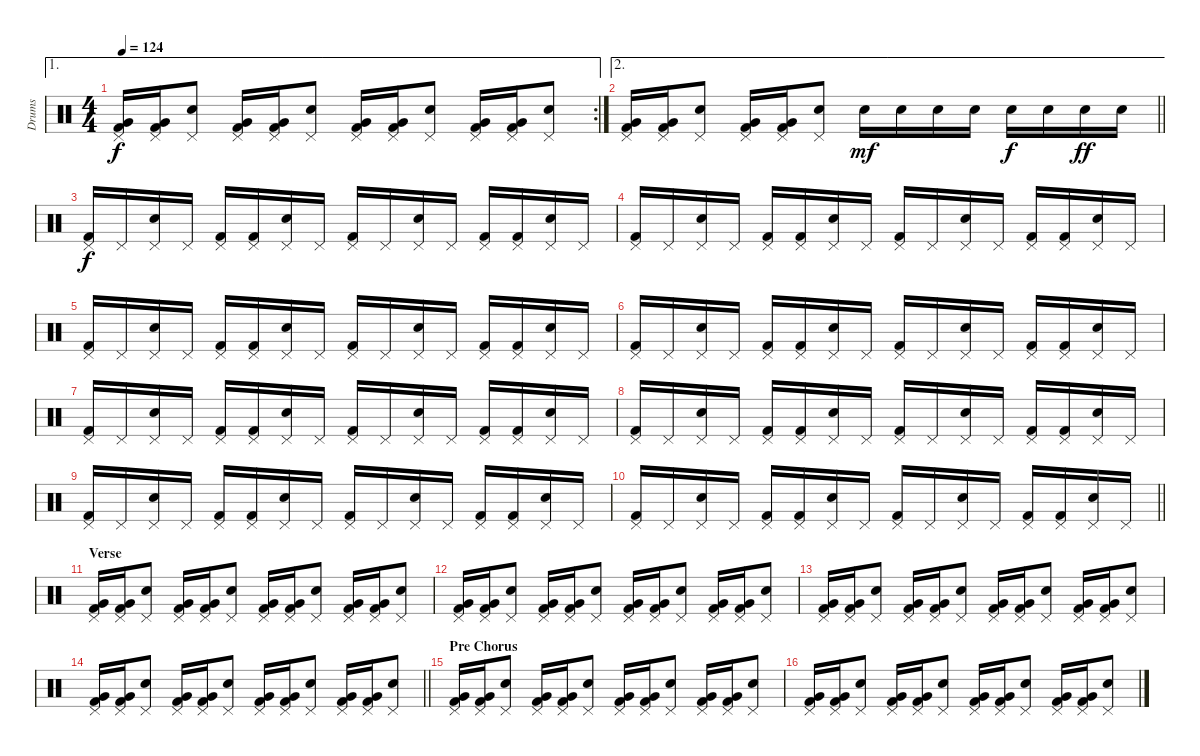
\track ("Drums" "Drums") {instrument percussion}
\staff {score}
\articulation defaults
\ae 1
\rc 2
\ts (4 4)
\tempo 124
\clef neutral
\ks c
("Pedal Hi-Hat (hit)" "Very Low Tom (hit)" "Kick (hit) 2").16{dy f} ("Pedal Hi-Hat (hit)" "Very Low Tom (hit)" "Kick (hit) 2").16 ("Pedal Hi-Hat (hit)" "Electric Snare (hit)").8 ("Pedal Hi-Hat (hit)" "Very Low Tom (hit)" "Kick (hit) 2").16 ("Pedal Hi-Hat (hit)" "Very Low Tom (hit)" "Kick (hit) 2").16 ("Pedal Hi-Hat (hit)" "Electric Snare (hit)").8 ("Pedal Hi-Hat (hit)" "Very Low Tom (hit)" "Kick (hit) 2").16 ("Pedal Hi-Hat (hit)" "Very Low Tom (hit)" "Kick (hit) 2").16 ("Pedal Hi-Hat (hit)" "Electric Snare (hit)").8 ("Pedal Hi-Hat (hit)" "Very Low Tom (hit)" "Kick (hit) 2").16 ("Pedal Hi-Hat (hit)" "Very Low Tom (hit)" "Kick (hit) 2").16 ("Pedal Hi-Hat (hit)" "Electric Snare (hit)").8 |
\ae 2
\barLineRight lightlight
("Pedal Hi-Hat (hit)" "Very Low Tom (hit)" "Kick (hit) 2").16 ("Pedal Hi-Hat (hit)" "Very Low Tom (hit)" "Kick (hit) 2").16 ("Pedal Hi-Hat (hit)" "Electric Snare (hit)").8 ("Pedal Hi-Hat (hit)" "Very Low Tom (hit)" "Kick (hit) 2").16 ("Pedal Hi-Hat (hit)" "Very Low Tom (hit)" "Kick (hit) 2").16 ("Pedal Hi-Hat (hit)" "Electric Snare (hit)").8 "Electric Snare (hit)".16{dy mf} "Electric Snare (hit)".16 "Electric Snare (hit)".16 "Electric Snare (hit)".16 "Electric Snare (hit)".16{dy f} "Electric Snare (hit)".16 "Electric Snare (hit)".16{dy ff} "Electric Snare (hit)".16 |
("Pedal Hi-Hat (hit)" "Kick (hit) 2").16{dy f} "Pedal Hi-Hat (hit)".16 ("Pedal Hi-Hat (hit)" "Electric Snare (hit)").16 "Pedal Hi-Hat (hit)".16 ("Pedal Hi-Hat (hit)" "Kick (hit) 2").16 ("Pedal Hi-Hat (hit)" "Kick (hit) 2").16 ("Pedal Hi-Hat (hit)" "Electric Snare (hit)").16 "Pedal Hi-Hat (hit)".16 ("Pedal Hi-Hat (hit)" "Kick (hit) 2").16 "Pedal Hi-Hat (hit)".16 ("Pedal Hi-Hat (hit)" "Electric Snare (hit)").16 "Pedal Hi-Hat (hit)".16 ("Pedal Hi-Hat (hit)" "Kick (hit) 2").16 ("Pedal Hi-Hat (hit)" "Kick (hit) 2").16 ("Pedal Hi-Hat (hit)" "Electric Snare (hit)").16 "Pedal Hi-Hat (hit)".16 |
("Pedal Hi-Hat (hit)" "Kick (hit) 2").16 "Pedal Hi-Hat (hit)".16 ("Pedal Hi-Hat (hit)" "Electric Snare (hit)").16 "Pedal Hi-Hat (hit)".16 ("Pedal Hi-Hat (hit)" "Kick (hit) 2").16 ("Pedal Hi-Hat (hit)" "Kick (hit) 2").16 ("Pedal Hi-Hat (hit)" "Electric Snare (hit)").16 "Pedal Hi-Hat (hit)".16 ("Pedal Hi-Hat (hit)" "Kick (hit) 2").16 "Pedal Hi-Hat (hit)".16 ("Pedal Hi-Hat (hit)" "Electric Snare (hit)").16 "Pedal Hi-Hat (hit)".16 ("Pedal Hi-Hat (hit)" "Kick (hit) 2").16 ("Pedal Hi-Hat (hit)" "Kick (hit) 2").16 ("Pedal Hi-Hat (hit)" "Electric Snare (hit)").16 "Pedal Hi-Hat (hit)".16 |
("Pedal Hi-Hat (hit)" "Kick (hit) 2").16 "Pedal Hi-Hat (hit)".16 ("Pedal Hi-Hat (hit)" "Electric Snare (hit)").16 "Pedal Hi-Hat (hit)".16 ("Pedal Hi-Hat (hit)" "Kick (hit) 2").16 ("Pedal Hi-Hat (hit)" "Kick (hit) 2").16 ("Pedal Hi-Hat (hit)" "Electric Snare (hit)").16 "Pedal Hi-Hat (hit)".16 ("Pedal Hi-Hat (hit)" "Kick (hit) 2").16 "Pedal Hi-Hat (hit)".16 ("Pedal Hi-Hat (hit)" "Electric Snare (hit)").16 "Pedal Hi-Hat (hit)".16 ("Pedal Hi-Hat (hit)" "Kick (hit) 2").16 ("Pedal Hi-Hat (hit)" "Kick (hit) 2").16 ("Pedal Hi-Hat (hit)" "Electric Snare (hit)").16 "Pedal Hi-Hat (hit)".16 |
("Pedal Hi-Hat (hit)" "Kick (hit) 2").16 "Pedal Hi-Hat (hit)".16 ("Pedal Hi-Hat (hit)" "Electric Snare (hit)").16 "Pedal Hi-Hat (hit)".16 ("Pedal Hi-Hat (hit)" "Kick (hit) 2").16 ("Pedal Hi-Hat (hit)" "Kick (hit) 2").16 ("Pedal Hi-Hat (hit)" "Electric Snare (hit)").16 "Pedal Hi-Hat (hit)".16 ("Pedal Hi-Hat (hit)" "Kick (hit) 2").16 "Pedal Hi-Hat (hit)".16 ("Pedal Hi-Hat (hit)" "Electric Snare (hit)").16 "Pedal Hi-Hat (hit)".16 ("Pedal Hi-Hat (hit)" "Kick (hit) 2").16 ("Pedal Hi-Hat (hit)" "Kick (hit) 2").16 ("Pedal Hi-Hat (hit)" "Electric Snare (hit)").16 "Pedal Hi-Hat (hit)".16 |
("Pedal Hi-Hat (hit)" "Kick (hit) 2").16 "Pedal Hi-Hat (hit)".16 ("Pedal Hi-Hat (hit)" "Electric Snare (hit)").16 "Pedal Hi-Hat (hit)".16 ("Pedal Hi-Hat (hit)" "Kick (hit) 2").16 ("Pedal Hi-Hat (hit)" "Kick (hit) 2").16 ("Pedal Hi-Hat (hit)" "Electric Snare (hit)").16 "Pedal Hi-Hat (hit)".16 ("Pedal Hi-Hat (hit)" "Kick (hit) 2").16 "Pedal Hi-Hat (hit)".16 ("Pedal Hi-Hat (hit)" "Electric Snare (hit)").16 "Pedal Hi-Hat (hit)".16 ("Pedal Hi-Hat (hit)" "Kick (hit) 2").16 ("Pedal Hi-Hat (hit)" "Kick (hit) 2").16 ("Pedal Hi-Hat (hit)" "Electric Snare (hit)").16 "Pedal Hi-Hat (hit)".16 |
("Pedal Hi-Hat (hit)" "Kick (hit) 2").16 "Pedal Hi-Hat (hit)".16 ("Pedal Hi-Hat (hit)" "Electric Snare (hit)").16 "Pedal Hi-Hat (hit)".16 ("Pedal Hi-Hat (hit)" "Kick (hit) 2").16 ("Pedal Hi-Hat (hit)" "Kick (hit) 2").16 ("Pedal Hi-Hat (hit)" "Electric Snare (hit)").16 "Pedal Hi-Hat (hit)".16 ("Pedal Hi-Hat (hit)" "Kick (hit) 2").16 "Pedal Hi-Hat (hit)".16 ("Pedal Hi-Hat (hit)" "Electric Snare (hit)").16 "Pedal Hi-Hat (hit)".16 ("Pedal Hi-Hat (hit)" "Kick (hit) 2").16 ("Pedal Hi-Hat (hit)" "Kick (hit) 2").16 ("Pedal Hi-Hat (hit)" "Electric Snare (hit)").16 "Pedal Hi-Hat (hit)".16 |
("Pedal Hi-Hat (hit)" "Kick (hit) 2").16 "Pedal Hi-Hat (hit)".16 ("Pedal Hi-Hat (hit)" "Electric Snare (hit)").16 "Pedal Hi-Hat (hit)".16 ("Pedal Hi-Hat (hit)" "Kick (hit) 2").16 ("Pedal Hi-Hat (hit)" "Kick (hit) 2").16 ("Pedal Hi-Hat (hit)" "Electric Snare (hit)").16 "Pedal Hi-Hat (hit)".16 ("Pedal Hi-Hat (hit)" "Kick (hit) 2").16 "Pedal Hi-Hat (hit)".16 ("Pedal Hi-Hat (hit)" "Electric Snare (hit)").16 "Pedal Hi-Hat (hit)".16 ("Pedal Hi-Hat (hit)" "Kick (hit) 2").16 ("Pedal Hi-Hat (hit)" "Kick (hit) 2").16 ("Pedal Hi-Hat (hit)" "Electric Snare (hit)").16 "Pedal Hi-Hat (hit)".16 |
\barLineRight lightlight
("Pedal Hi-Hat (hit)" "Kick (hit) 2").16 "Pedal Hi-Hat (hit)".16 ("Pedal Hi-Hat (hit)" "Electric Snare (hit)").16 "Pedal Hi-Hat (hit)".16 ("Pedal Hi-Hat (hit)" "Kick (hit) 2").16 ("Pedal Hi-Hat (hit)" "Kick (hit) 2").16 ("Pedal Hi-Hat (hit)" "Electric Snare (hit)").16 "Pedal Hi-Hat (hit)".16 ("Pedal Hi-Hat (hit)" "Kick (hit) 2").16 "Pedal Hi-Hat (hit)".16 ("Pedal Hi-Hat (hit)" "Electric Snare (hit)").16 "Pedal Hi-Hat (hit)".16 ("Pedal Hi-Hat (hit)" "Kick (hit) 2").16 ("Pedal Hi-Hat (hit)" "Kick (hit) 2").16 ("Pedal Hi-Hat (hit)" "Electric Snare (hit)").16 "Pedal Hi-Hat (hit)".16 |
\section ("" "Verse")
("Pedal Hi-Hat (hit)" "Very Low Tom (hit)" "Kick (hit) 2").16 ("Pedal Hi-Hat (hit)" "Very Low Tom (hit)" "Kick (hit) 2").16 ("Pedal Hi-Hat (hit)" "Electric Snare (hit)").8 ("Pedal Hi-Hat (hit)" "Very Low Tom (hit)" "Kick (hit) 2").16 ("Pedal Hi-Hat (hit)" "Very Low Tom (hit)" "Kick (hit) 2").16 ("Pedal Hi-Hat (hit)" "Electric Snare (hit)").8 ("Pedal Hi-Hat (hit)" "Very Low Tom (hit)" "Kick (hit) 2").16 ("Pedal Hi-Hat (hit)" "Very Low Tom (hit)" "Kick (hit) 2").16 ("Pedal Hi-Hat (hit)" "Electric Snare (hit)").8 ("Pedal Hi-Hat (hit)" "Very Low Tom (hit)" "Kick (hit) 2").16 ("Pedal Hi-Hat (hit)" "Very Low Tom (hit)" "Kick (hit) 2").16 ("Pedal Hi-Hat (hit)" "Electric Snare (hit)").8 |
("Pedal Hi-Hat (hit)" "Very Low Tom (hit)" "Kick (hit) 2").16 ("Pedal Hi-Hat (hit)" "Very Low Tom (hit)" "Kick (hit) 2").16 ("Pedal Hi-Hat (hit)" "Electric Snare (hit)").8 ("Pedal Hi-Hat (hit)" "Very Low Tom (hit)" "Kick (hit) 2").16 ("Pedal Hi-Hat (hit)" "Very Low Tom (hit)" "Kick (hit) 2").16 ("Pedal Hi-Hat (hit)" "Electric Snare (hit)").8 ("Pedal Hi-Hat (hit)" "Very Low Tom (hit)" "Kick (hit) 2").16 ("Pedal Hi-Hat (hit)" "Very Low Tom (hit)" "Kick (hit) 2").16 ("Pedal Hi-Hat (hit)" "Electric Snare (hit)").8 ("Pedal Hi-Hat (hit)" "Very Low Tom (hit)" "Kick (hit) 2").16 ("Pedal Hi-Hat (hit)" "Very Low Tom (hit)" "Kick (hit) 2").16 ("Pedal Hi-Hat (hit)" "Electric Snare (hit)").8 |
("Pedal Hi-Hat (hit)" "Very Low Tom (hit)" "Kick (hit) 2").16 ("Pedal Hi-Hat (hit)" "Very Low Tom (hit)" "Kick (hit) 2").16 ("Pedal Hi-Hat (hit)" "Electric Snare (hit)").8 ("Pedal Hi-Hat (hit)" "Very Low Tom (hit)" "Kick (hit) 2").16 ("Pedal Hi-Hat (hit)" "Very Low Tom (hit)" "Kick (hit) 2").16 ("Pedal Hi-Hat (hit)" "Electric Snare (hit)").8 ("Pedal Hi-Hat (hit)" "Very Low Tom (hit)" "Kick (hit) 2").16 ("Pedal Hi-Hat (hit)" "Very Low Tom (hit)" "Kick (hit) 2").16 ("Pedal Hi-Hat (hit)" "Electric Snare (hit)").8 ("Pedal Hi-Hat (hit)" "Very Low Tom (hit)" "Kick (hit) 2").16 ("Pedal Hi-Hat (hit)" "Very Low Tom (hit)" "Kick (hit) 2").16 ("Pedal Hi-Hat (hit)" "Electric Snare (hit)").8 |
\barLineRight lightlight
("Pedal Hi-Hat (hit)" "Very Low Tom (hit)" "Kick (hit) 2").16 ("Pedal Hi-Hat (hit)" "Very Low Tom (hit)" "Kick (hit) 2").16 ("Pedal Hi-Hat (hit)" "Electric Snare (hit)").8 ("Pedal Hi-Hat (hit)" "Very Low Tom (hit)" "Kick (hit) 2").16 ("Pedal Hi-Hat (hit)" "Very Low Tom (hit)" "Kick (hit) 2").16 ("Pedal Hi-Hat (hit)" "Electric Snare (hit)").8 ("Pedal Hi-Hat (hit)" "Very Low Tom (hit)" "Kick (hit) 2").16 ("Pedal Hi-Hat (hit)" "Very Low Tom (hit)" "Kick (hit) 2").16 ("Pedal Hi-Hat (hit)" "Electric Snare (hit)").8 ("Pedal Hi-Hat (hit)" "Very Low Tom (hit)" "Kick (hit) 2").16 ("Pedal Hi-Hat (hit)" "Very Low Tom (hit)" "Kick (hit) 2").16 ("Pedal Hi-Hat (hit)" "Electric Snare (hit)").8 |
\section ("" "Pre Chorus")
("Pedal Hi-Hat (hit)" "Very Low Tom (hit)" "Kick (hit) 2").16 ("Pedal Hi-Hat (hit)" "Very Low Tom (hit)" "Kick (hit) 2").16 ("Pedal Hi-Hat (hit)" "Electric Snare (hit)").8 ("Pedal Hi-Hat (hit)" "Very Low Tom (hit)" "Kick (hit) 2").16 ("Pedal Hi-Hat (hit)" "Very Low Tom (hit)" "Kick (hit) 2").16 ("Pedal Hi-Hat (hit)" "Electric Snare (hit)").8 ("Pedal Hi-Hat (hit)" "Very Low Tom (hit)" "Kick (hit) 2").16 ("Pedal Hi-Hat (hit)" "Very Low Tom (hit)" "Kick (hit) 2").16 ("Pedal Hi-Hat (hit)" "Electric Snare (hit)").8 ("Pedal Hi-Hat (hit)" "Very Low Tom (hit)" "Kick (hit) 2").16 ("Pedal Hi-Hat (hit)" "Very Low Tom (hit)" "Kick (hit) 2").16 ("Pedal Hi-Hat (hit)" "Electric Snare (hit)").8 |
("Pedal Hi-Hat (hit)" "Very Low Tom (hit)" "Kick (hit) 2").16 ("Pedal Hi-Hat (hit)" "Very Low Tom (hit)" "Kick (hit) 2").16 ("Pedal Hi-Hat (hit)" "Electric Snare (hit)").8 ("Pedal Hi-Hat (hit)" "Very Low Tom (hit)" "Kick (hit) 2").16 ("Pedal Hi-Hat (hit)" "Very Low Tom (hit)" "Kick (hit) 2").16 ("Pedal Hi-Hat (hit)" "Electric Snare (hit)").8 ("Pedal Hi-Hat (hit)" "Very Low Tom (hit)" "Kick (hit) 2").16 ("Pedal Hi-Hat (hit)" "Very Low Tom (hit)" "Kick (hit) 2").16 ("Pedal Hi-Hat (hit)" "Electric Snare (hit)").8 ("Pedal Hi-Hat (hit)" "Very Low Tom (hit)" "Kick (hit) 2").16 ("Pedal Hi-Hat (hit)" "Very Low Tom (hit)" "Kick (hit) 2").16 ("Pedal Hi-Hat (hit)" "Electric Snare (hit)").8
